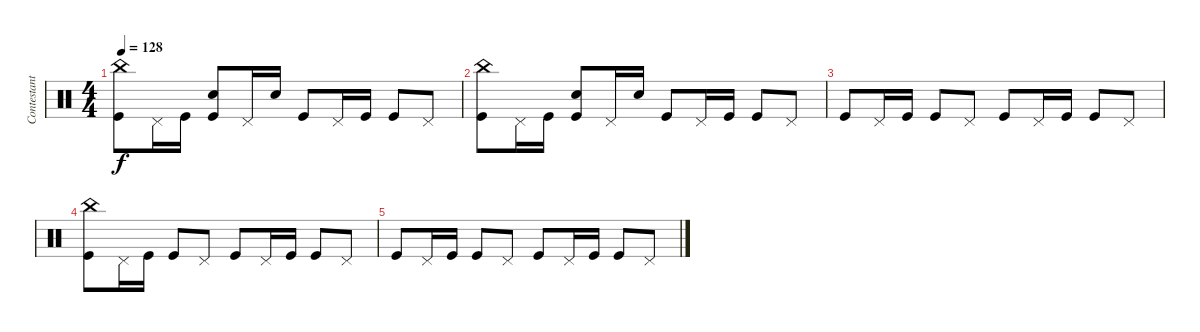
\track ("Contestant #4" "Contestant") {instrument percussion}
\staff {score}
\articulation defaults
\ts (4 4)
\tempo 128
\clef neutral
\ks c
("China (hit)" "Kick (hit)").8{dy f volume 6} "Pedal Hi-Hat (hit)".16 "Kick (hit)".16 ("Snare (hit) 2" "Kick (hit)").8 "Pedal Hi-Hat (hit)".16 "Snare (hit) 2".16 "Kick (hit)".8 "Pedal Hi-Hat (hit)".16 "Kick (hit)".16 "Kick (hit)".8 "Pedal Hi-Hat (hit)".8 |
("China (hit)" "Kick (hit)").8{volume 4} "Pedal Hi-Hat (hit)".16 "Kick (hit)".16 ("Snare (hit) 2" "Kick (hit)").8 "Pedal Hi-Hat (hit)".16 "Snare (hit) 2".16 "Kick (hit)".8 "Pedal Hi-Hat (hit)".16 "Kick (hit)".16 "Kick (hit)".8 "Pedal Hi-Hat (hit)".8 |
"Kick (hit)".8{volume 3} "Pedal Hi-Hat (hit)".16 "Kick (hit)".16 "Kick (hit)".8 "Pedal Hi-Hat (hit)".8 "Kick (hit)".8 "Pedal Hi-Hat (hit)".16 "Kick (hit)".16 "Kick (hit)".8 "Pedal Hi-Hat (hit)".8 |
("China (hit)" "Kick (hit)").8{volume 1} "Pedal Hi-Hat (hit)".16 "Kick (hit)".16 "Kick (hit)".8 "Pedal Hi-Hat (hit)".8 "Kick (hit)".8 "Pedal Hi-Hat (hit)".16 "Kick (hit)".16 "Kick (hit)".8 "Pedal Hi-Hat (hit)".8 |
"Kick (hit)".8{volume 0} "Pedal Hi-Hat (hit)".16 "Kick (hit)".16 "Kick (hit)".8 "Pedal Hi-Hat (hit)".8 "Kick (hit)".8 "Pedal Hi-Hat (hit)".16 "Kick (hit)".16 "Kick (hit)".8 "Pedal Hi-Hat (hit)".8
